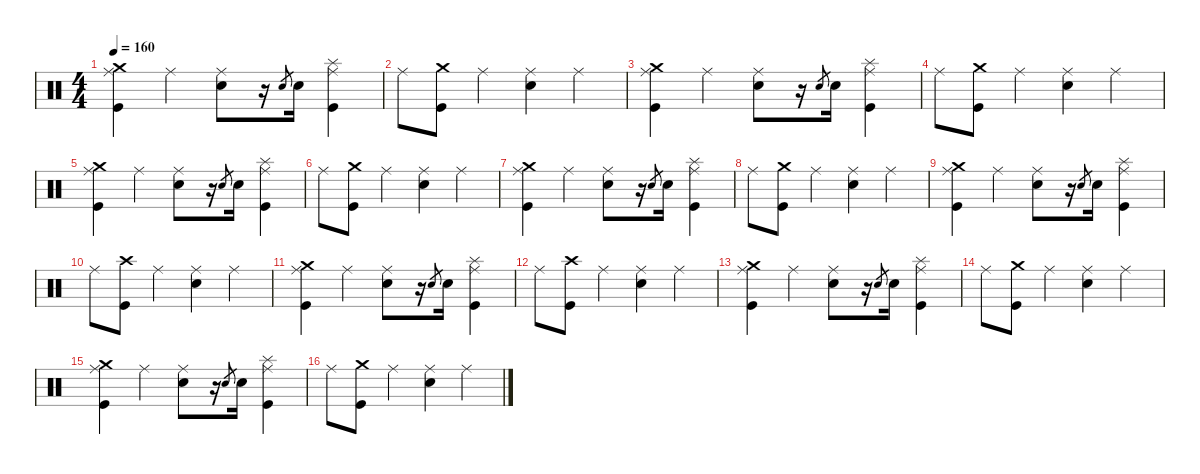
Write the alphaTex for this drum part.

\defaultSystemsLayout 4
\hideDynamics
\bracketExtendMode nobrackets
\singleTrackTrackNamePolicy hidden
\multiTrackTrackNamePolicy hidden
\firstSystemTrackNameMode fullname
\firstSystemTrackNameOrientation horizontal
\otherSystemsTrackNameOrientation horizontal
\track ("Drums" "drm.") {instrument percussion}
\staff {score}
\articulation defaults
\ts (4 4)
\tempo 160
\clef neutral
\ks aminor
("Crash medium (hit)" "Ride (middle)" "Kick (hit)").4{dy f beam Down} "Ride (middle)".4{beam Down} ("Ride (middle)" "Snare (hit) 2").8{beam Down} r.16{beam Down} "Electric Snare (hit)".8{gr dy pp beam Up} "Snare (hit) 2".16{dy p beam Down} ("Splash (hit)" "Ride (middle)" "Kick (hit)").4{dy mf beam Down} |
"Ride (middle)".8{dy f beam Down} ("Crash medium (hit)" "Kick (hit)").8{beam Down} "Ride (middle)".4{beam Down} ("Ride (middle)" "Snare (hit) 2").4{beam Down} "Ride (middle)".4{beam Down} |
("Crash medium (hit)" "Ride (middle)" "Kick (hit)").4{beam Down} "Ride (middle)".4{beam Down} ("Ride (middle)" "Snare (hit) 2").8{beam Down} r.16{beam Down} "Electric Snare (hit)".8{gr dy pp beam Up} "Snare (hit) 2".16{dy p beam Down} ("Splash (hit)" "Ride (middle)" "Kick (hit)").4{dy mf beam Down} |
"Ride (middle)".8{dy f beam Down} ("Crash medium (hit)" "Kick (hit)").8{beam Down} "Ride (middle)".4{beam Down} ("Ride (middle)" "Snare (hit) 2").4{beam Down} "Ride (middle)".4{beam Down} |
("Crash medium (hit)" "Ride (middle)" "Kick (hit)").4{beam Down} "Ride (middle)".4{beam Down} ("Ride (middle)" "Snare (hit) 2").8{beam Down} r.16{beam Down} "Electric Snare (hit)".8{gr dy pp beam Up} "Snare (hit) 2".16{dy p beam Down} ("Splash (hit)" "Ride (middle)" "Kick (hit)").4{dy mf beam Down} |
"Ride (middle)".8{dy f beam Down} ("Crash medium (hit)" "Kick (hit)").8{beam Down} "Ride (middle)".4{beam Down} ("Ride (middle)" "Snare (hit) 2").4{beam Down} "Ride (middle)".4{beam Down} |
("Crash medium (hit)" "Ride (middle)" "Kick (hit)").4{beam Down} "Ride (middle)".4{beam Down} ("Ride (middle)" "Snare (hit) 2").8{beam Down} r.16{beam Down} "Electric Snare (hit)".8{gr dy pp beam Up} "Snare (hit) 2".16{dy p beam Down} ("Splash (hit)" "Ride (middle)" "Kick (hit)").4{dy mf beam Down} |
"Ride (middle)".8{dy f beam Down} ("Crash medium (hit)" "Kick (hit)").8{beam Down} "Ride (middle)".4{beam Down} ("Ride (middle)" "Snare (hit) 2").4{beam Down} "Ride (middle)".4{beam Down} |
("Crash medium (hit)" "Ride (middle)" "Kick (hit)").4{beam Down} "Ride (middle)".4{beam Down} ("Ride (middle)" "Snare (hit) 2").8{beam Down} r.16{beam Down} "Electric Snare (hit)".8{gr dy pp beam Up} "Snare (hit) 2".16{dy p beam Down} ("Splash (hit)" "Ride (middle)" "Kick (hit)").4{dy mf beam Down} |
"Ride (middle)".8{dy f beam Down} ("Crash high (hit)" "Kick (hit)").8{dy mf beam Down} "Ride (middle)".4{dy f beam Down} ("Ride (middle)" "Snare (hit) 2").4{beam Down} "Ride (middle)".4{beam Down} |
("Crash medium (hit)" "Ride (middle)" "Kick (hit)").4{beam Down} "Ride (middle)".4{beam Down} ("Ride (middle)" "Snare (hit) 2").8{beam Down} r.16{beam Down} "Electric Snare (hit)".8{gr dy pp beam Up} "Snare (hit) 2".16{dy p beam Down} ("Splash (hit)" "Ride (middle)" "Kick (hit)").4{dy mf beam Down} |
"Ride (middle)".8{dy f beam Down} ("Crash high (hit)" "Kick (hit)").8{dy mf beam Down} "Ride (middle)".4{dy f beam Down} ("Ride (middle)" "Snare (hit) 2").4{beam Down} "Ride (middle)".4{beam Down} |
("Crash medium (hit)" "Ride (middle)" "Kick (hit)").4{beam Down} "Ride (middle)".4{beam Down} ("Ride (middle)" "Snare (hit) 2").8{beam Down} r.16{beam Down} "Electric Snare (hit)".8{gr dy pp beam Up} "Snare (hit) 2".16{dy p beam Down} ("Splash (hit)" "Ride (middle)" "Kick (hit)").4{dy mf beam Down} |
"Ride (middle)".8{dy f beam Down} ("Crash medium (hit)" "Kick (hit)").8{beam Down} "Ride (middle)".4{beam Down} ("Ride (middle)" "Snare (hit) 2").4{beam Down} "Ride (middle)".4{beam Down} |
("Crash medium (hit)" "Ride (middle)" "Kick (hit)").4{beam Down} "Ride (middle)".4{beam Down} ("Ride (middle)" "Snare (hit) 2").8{beam Down} r.16{beam Down} "Electric Snare (hit)".8{gr dy pp beam Up} "Snare (hit) 2".16{dy p beam Down} ("Splash (hit)" "Ride (middle)" "Kick (hit)").4{dy mf beam Down} |
"Ride (middle)".8{dy f beam Down} ("Crash medium (hit)" "Kick (hit)").8{beam Down} "Ride (middle)".4{beam Down} ("Ride (middle)" "Snare (hit) 2").4{beam Down} "Ride (middle)".4{beam Down}
